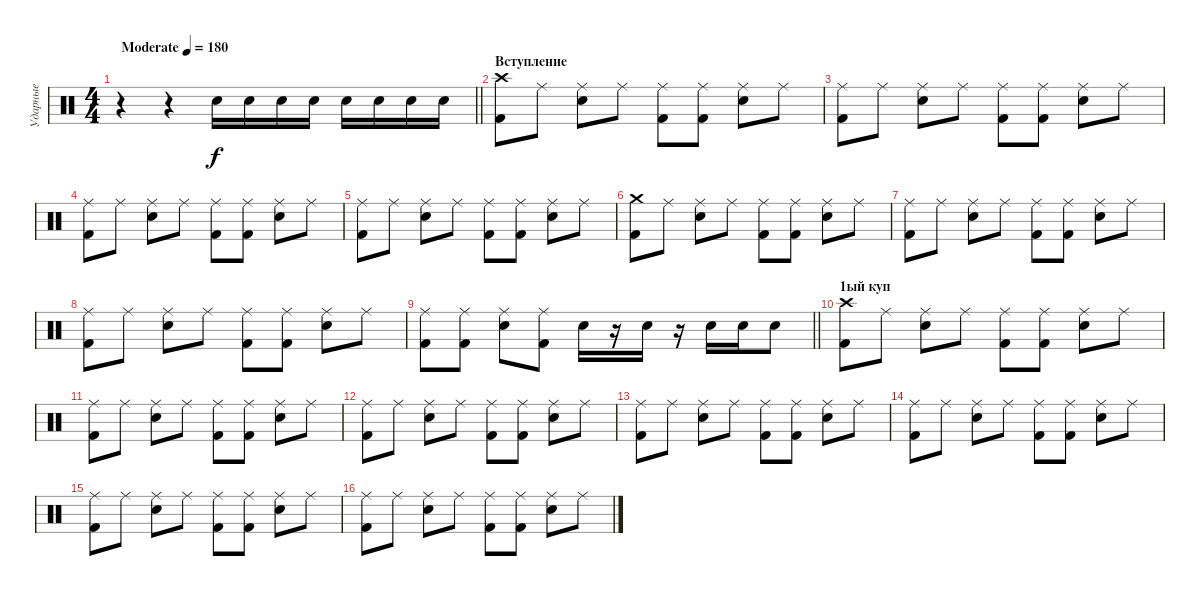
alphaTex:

\track ("Ударные" "Ударные") {instrument percussion}
\staff {score}
\articulation defaults
\ts (4 4)
\tempo (180 "Moderate")
\clef neutral
\barLineRight lightlight
\ks c
r.4{dy f} r.4 "Electric Snare (hit)".16 "Electric Snare (hit)".16 "Electric Snare (hit)".16 "Electric Snare (hit)".16 "Electric Snare (hit)".16 "Electric Snare (hit)".16 "Electric Snare (hit)".16 "Electric Snare (hit)".16 |
\section ("" "Вступление")
("Crash high (hit)" "Kick (hit) 2").8 "Ride (middle)".8 ("Ride (middle)" "Electric Snare (hit)").8 "Ride (middle)".8 ("Ride (middle)" "Kick (hit) 2").8 ("Ride (middle)" "Kick (hit) 2").8 ("Ride (middle)" "Electric Snare (hit)").8 "Ride (middle)".8 |
("Ride (middle)" "Kick (hit) 2").8 "Ride (middle)".8 ("Ride (middle)" "Electric Snare (hit)").8 "Ride (middle)".8 ("Ride (middle)" "Kick (hit) 2").8 ("Ride (middle)" "Kick (hit) 2").8 ("Ride (middle)" "Electric Snare (hit)").8 "Ride (middle)".8 |
("Ride (middle)" "Kick (hit) 2").8 "Ride (middle)".8 ("Ride (middle)" "Electric Snare (hit)").8 "Ride (middle)".8 ("Ride (middle)" "Kick (hit) 2").8 ("Ride (middle)" "Kick (hit) 2").8 ("Ride (middle)" "Electric Snare (hit)").8 "Ride (middle)".8 |
("Ride (middle)" "Kick (hit) 2").8 "Ride (middle)".8 ("Ride (middle)" "Electric Snare (hit)").8 "Ride (middle)".8 ("Ride (middle)" "Kick (hit) 2").8 ("Ride (middle)" "Kick (hit) 2").8 ("Ride (middle)" "Electric Snare (hit)").8 "Ride (middle)".8 |
("Crash medium (hit)" "Kick (hit) 2").8 "Ride (middle)".8 ("Ride (middle)" "Electric Snare (hit)").8 "Ride (middle)".8 ("Ride (middle)" "Kick (hit) 2").8 ("Ride (middle)" "Kick (hit) 2").8 ("Ride (middle)" "Electric Snare (hit)").8 "Ride (middle)".8 |
("Ride (middle)" "Kick (hit) 2").8 "Ride (middle)".8 ("Ride (middle)" "Electric Snare (hit)").8 "Ride (middle)".8 ("Ride (middle)" "Kick (hit) 2").8 ("Ride (middle)" "Kick (hit) 2").8 ("Ride (middle)" "Electric Snare (hit)").8 "Ride (middle)".8 |
("Ride (middle)" "Kick (hit) 2").8 "Ride (middle)".8 ("Ride (middle)" "Electric Snare (hit)").8 "Ride (middle)".8 ("Ride (middle)" "Kick (hit) 2").8 ("Ride (middle)" "Kick (hit) 2").8 ("Ride (middle)" "Electric Snare (hit)").8 "Ride (middle)".8 |
\barLineRight lightlight
("Ride (middle)" "Kick (hit) 2").8 ("Ride (middle)" "Kick (hit) 2").8 ("Ride (middle)" "Electric Snare (hit)").8 ("Ride (middle)" "Kick (hit) 2").8 "Electric Snare (hit)".16 r.16 "Electric Snare (hit)".16 r.16 "Electric Snare (hit)".16 "Electric Snare (hit)".16 "Electric Snare (hit)".8 |
\section ("" "1ый куп")
("Crash high (hit)" "Kick (hit) 2").8 "Ride (middle)".8 ("Ride (middle)" "Electric Snare (hit)").8 "Ride (middle)".8 ("Ride (middle)" "Kick (hit) 2").8 ("Ride (middle)" "Kick (hit) 2").8 ("Ride (middle)" "Electric Snare (hit)").8 "Ride (middle)".8 |
("Ride (middle)" "Kick (hit) 2").8 "Ride (middle)".8 ("Ride (middle)" "Electric Snare (hit)").8 "Ride (middle)".8 ("Ride (middle)" "Kick (hit) 2").8 ("Ride (middle)" "Kick (hit) 2").8 ("Ride (middle)" "Electric Snare (hit)").8 "Ride (middle)".8 |
("Ride (middle)" "Kick (hit) 2").8 "Ride (middle)".8 ("Ride (middle)" "Electric Snare (hit)").8 "Ride (middle)".8 ("Ride (middle)" "Kick (hit) 2").8 ("Ride (middle)" "Kick (hit) 2").8 ("Ride (middle)" "Electric Snare (hit)").8 "Ride (middle)".8 |
("Ride (middle)" "Kick (hit) 2").8 "Ride (middle)".8 ("Ride (middle)" "Electric Snare (hit)").8 "Ride (middle)".8 ("Ride (middle)" "Kick (hit) 2").8 ("Ride (middle)" "Kick (hit) 2").8 ("Ride (middle)" "Electric Snare (hit)").8 "Ride (middle)".8 |
("Ride (middle)" "Kick (hit) 2").8 "Ride (middle)".8 ("Ride (middle)" "Electric Snare (hit)").8 "Ride (middle)".8 ("Ride (middle)" "Kick (hit) 2").8 ("Ride (middle)" "Kick (hit) 2").8 ("Ride (middle)" "Electric Snare (hit)").8 "Ride (middle)".8 |
("Ride (middle)" "Kick (hit) 2").8 "Ride (middle)".8 ("Ride (middle)" "Electric Snare (hit)").8 "Ride (middle)".8 ("Ride (middle)" "Kick (hit) 2").8 ("Ride (middle)" "Kick (hit) 2").8 ("Ride (middle)" "Electric Snare (hit)").8 "Ride (middle)".8 |
("Ride (middle)" "Kick (hit) 2").8 "Ride (middle)".8 ("Ride (middle)" "Electric Snare (hit)").8 "Ride (middle)".8 ("Ride (middle)" "Kick (hit) 2").8 ("Ride (middle)" "Kick (hit) 2").8 ("Ride (middle)" "Electric Snare (hit)").8 "Ride (middle)".8
